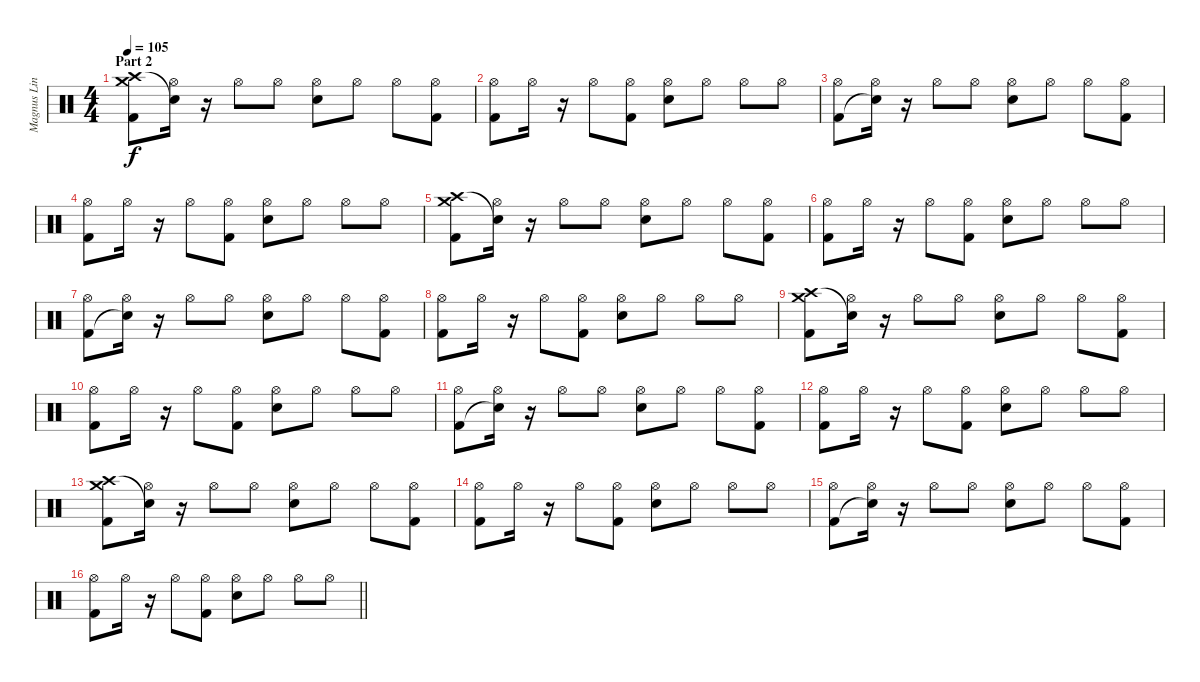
\track ("Magnus Lindberg" "Magnus Lin") {instrument percussion}
\staff {score}
\articulation defaults
\ts (4 4)
\section ("" "Part 2")
\tempo 105
\clef neutral
\ks c
("Crash medium (hit)" "Crash high (hit)" "Kick (hit) 2").8{dy f} ("Hi-Hat (open)" "Snare (hit)"{t}).16 r.16 "Hi-Hat (open)".8 "Hi-Hat (open)".8 ("Hi-Hat (open)" "Snare (hit) 2").8 "Hi-Hat (open)".8 "Hi-Hat (open)".8 ("Hi-Hat (open)" "Kick (hit) 2").8 |
("Hi-Hat (open)" "Kick (hit) 2").8 "Hi-Hat (open)".16 r.16 "Hi-Hat (open)".8 ("Hi-Hat (open)" "Kick (hit) 2").8 ("Hi-Hat (open)" "Snare (hit) 2").8 "Hi-Hat (open)".8 "Hi-Hat (open)".8 "Hi-Hat (open)".8 |
("Hi-Hat (open)" "Kick (hit) 2").8 ("Hi-Hat (open)" "Snare (hit)"{t}).16 r.16 "Hi-Hat (open)".8 "Hi-Hat (open)".8 ("Hi-Hat (open)" "Snare (hit) 2").8 "Hi-Hat (open)".8 "Hi-Hat (open)".8 ("Hi-Hat (open)" "Kick (hit) 2").8 |
("Hi-Hat (open)" "Kick (hit) 2").8 "Hi-Hat (open)".16 r.16 "Hi-Hat (open)".8 ("Hi-Hat (open)" "Kick (hit) 2").8 ("Hi-Hat (open)" "Snare (hit) 2").8 "Hi-Hat (open)".8 "Hi-Hat (open)".8 "Hi-Hat (open)".8 |
("Crash medium (hit)" "Crash high (hit)" "Kick (hit) 2").8 ("Hi-Hat (open)" "Snare (hit)"{t}).16 r.16 "Hi-Hat (open)".8 "Hi-Hat (open)".8 ("Hi-Hat (open)" "Snare (hit) 2").8 "Hi-Hat (open)".8 "Hi-Hat (open)".8 ("Hi-Hat (open)" "Kick (hit) 2").8 |
("Hi-Hat (open)" "Kick (hit) 2").8 "Hi-Hat (open)".16 r.16 "Hi-Hat (open)".8 ("Hi-Hat (open)" "Kick (hit) 2").8 ("Hi-Hat (open)" "Snare (hit) 2").8 "Hi-Hat (open)".8 "Hi-Hat (open)".8 "Hi-Hat (open)".8 |
("Hi-Hat (open)" "Kick (hit) 2").8 ("Hi-Hat (open)" "Snare (hit)"{t}).16 r.16 "Hi-Hat (open)".8 "Hi-Hat (open)".8 ("Hi-Hat (open)" "Snare (hit) 2").8 "Hi-Hat (open)".8 "Hi-Hat (open)".8 ("Hi-Hat (open)" "Kick (hit) 2").8 |
("Hi-Hat (open)" "Kick (hit) 2").8 "Hi-Hat (open)".16 r.16 "Hi-Hat (open)".8 ("Hi-Hat (open)" "Kick (hit) 2").8 ("Hi-Hat (open)" "Snare (hit) 2").8 "Hi-Hat (open)".8 "Hi-Hat (open)".8 "Hi-Hat (open)".8 |
("Crash medium (hit)" "Crash high (hit)" "Kick (hit) 2").8 ("Hi-Hat (open)" "Snare (hit)"{t}).16 r.16 "Hi-Hat (open)".8 "Hi-Hat (open)".8 ("Hi-Hat (open)" "Snare (hit) 2").8 "Hi-Hat (open)".8 "Hi-Hat (open)".8 ("Hi-Hat (open)" "Kick (hit) 2").8 |
("Hi-Hat (open)" "Kick (hit) 2").8 "Hi-Hat (open)".16 r.16 "Hi-Hat (open)".8 ("Hi-Hat (open)" "Kick (hit) 2").8 ("Hi-Hat (open)" "Snare (hit) 2").8 "Hi-Hat (open)".8 "Hi-Hat (open)".8 "Hi-Hat (open)".8 |
("Hi-Hat (open)" "Kick (hit) 2").8 ("Hi-Hat (open)" "Snare (hit)"{t}).16 r.16 "Hi-Hat (open)".8 "Hi-Hat (open)".8 ("Hi-Hat (open)" "Snare (hit) 2").8 "Hi-Hat (open)".8 "Hi-Hat (open)".8 ("Hi-Hat (open)" "Kick (hit) 2").8 |
("Hi-Hat (open)" "Kick (hit) 2").8 "Hi-Hat (open)".16 r.16 "Hi-Hat (open)".8 ("Hi-Hat (open)" "Kick (hit) 2").8 ("Hi-Hat (open)" "Snare (hit) 2").8 "Hi-Hat (open)".8 "Hi-Hat (open)".8 "Hi-Hat (open)".8 |
("Crash medium (hit)" "Crash high (hit)" "Kick (hit) 2").8 ("Hi-Hat (open)" "Snare (hit)"{t}).16 r.16 "Hi-Hat (open)".8 "Hi-Hat (open)".8 ("Hi-Hat (open)" "Snare (hit) 2").8 "Hi-Hat (open)".8 "Hi-Hat (open)".8 ("Hi-Hat (open)" "Kick (hit) 2").8 |
("Hi-Hat (open)" "Kick (hit) 2").8 "Hi-Hat (open)".16 r.16 "Hi-Hat (open)".8 ("Hi-Hat (open)" "Kick (hit) 2").8 ("Hi-Hat (open)" "Snare (hit) 2").8 "Hi-Hat (open)".8 "Hi-Hat (open)".8 "Hi-Hat (open)".8 |
("Hi-Hat (open)" "Kick (hit) 2").8 ("Hi-Hat (open)" "Snare (hit)"{t}).16 r.16 "Hi-Hat (open)".8 "Hi-Hat (open)".8 ("Hi-Hat (open)" "Snare (hit) 2").8 "Hi-Hat (open)".8 "Hi-Hat (open)".8 ("Hi-Hat (open)" "Kick (hit) 2").8 |
\barLineRight lightlight
("Hi-Hat (open)" "Kick (hit) 2").8 "Hi-Hat (open)".16 r.16 "Hi-Hat (open)".8 ("Hi-Hat (open)" "Kick (hit) 2").8 ("Hi-Hat (open)" "Snare (hit) 2").8 "Hi-Hat (open)".8 "Hi-Hat (open)".8 "Hi-Hat (open)".8
